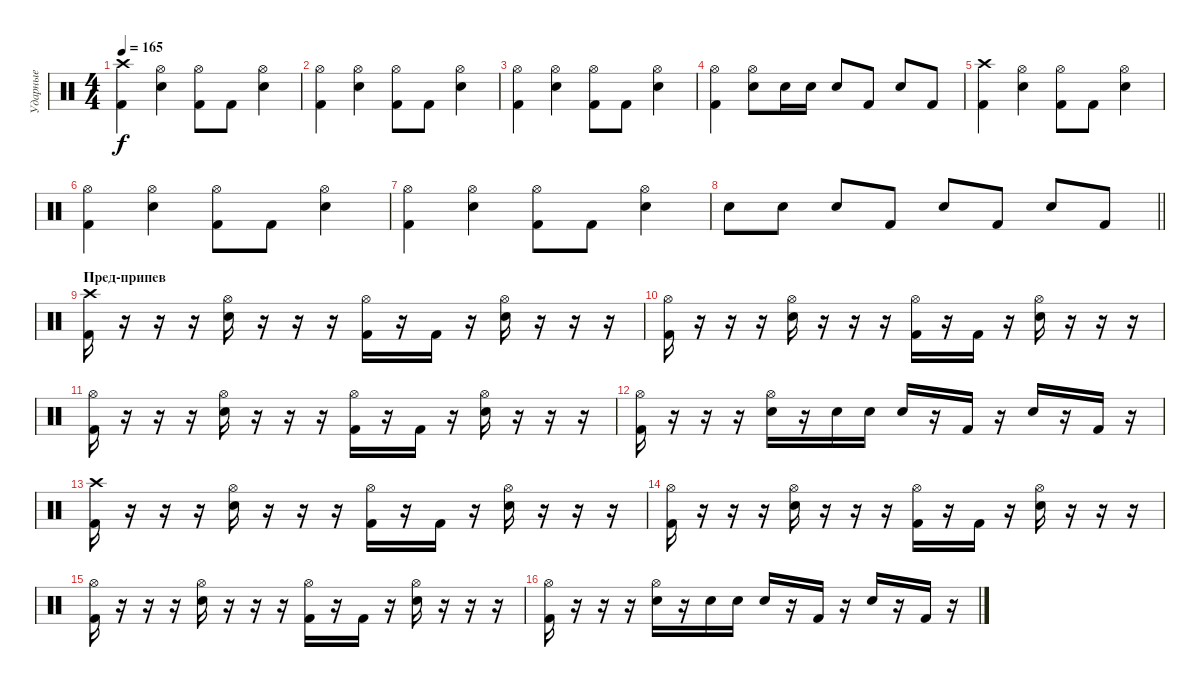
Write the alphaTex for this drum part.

\track ("Ударные" "Ударные") {instrument percussion}
\staff {score}
\articulation defaults
\ts (4 4)
\tempo 165
\clef neutral
\ks c
("Kick (hit) 2" "Crash high (hit)").4{dy f} ("Electric Snare (hit)" "Hi-Hat (open)").4 ("Kick (hit) 2" "Hi-Hat (open)").8 "Kick (hit) 2".8 ("Electric Snare (hit)" "Hi-Hat (open)").4 |
("Kick (hit) 2" "Hi-Hat (open)").4 ("Electric Snare (hit)" "Hi-Hat (open)").4 ("Kick (hit) 2" "Hi-Hat (open)").8 "Kick (hit) 2".8 ("Electric Snare (hit)" "Hi-Hat (open)").4 |
("Kick (hit) 2" "Hi-Hat (open)").4 ("Electric Snare (hit)" "Hi-Hat (open)").4 ("Kick (hit) 2" "Hi-Hat (open)").8 "Kick (hit) 2".8 ("Electric Snare (hit)" "Hi-Hat (open)").4 |
("Kick (hit) 2" "Hi-Hat (open)").4 ("Electric Snare (hit)" "Hi-Hat (open)").8 "Electric Snare (hit)".16 "Electric Snare (hit)".16 "Electric Snare (hit)".8 "Kick (hit) 2".8 "Electric Snare (hit)".8 "Kick (hit) 2".8 |
("Kick (hit) 2" "Crash high (hit)").4 ("Electric Snare (hit)" "Hi-Hat (open)").4 ("Kick (hit) 2" "Hi-Hat (open)").8 "Kick (hit) 2".8 ("Electric Snare (hit)" "Hi-Hat (open)").4 |
("Kick (hit) 2" "Hi-Hat (open)").4 ("Electric Snare (hit)" "Hi-Hat (open)").4 ("Kick (hit) 2" "Hi-Hat (open)").8 "Kick (hit) 2".8 ("Electric Snare (hit)" "Hi-Hat (open)").4 |
("Kick (hit) 2" "Hi-Hat (open)").4 ("Electric Snare (hit)" "Hi-Hat (open)").4 ("Kick (hit) 2" "Hi-Hat (open)").8 "Kick (hit) 2".8 ("Electric Snare (hit)" "Hi-Hat (open)").4 |
\barLineRight lightlight "Electric Snare (hit)".8 "Electric Snare (hit)".8 "Electric Snare (hit)".8 "Kick (hit) 2".8 "Electric Snare (hit)".8 "Kick (hit) 2".8 "Electric Snare (hit)".8 "Kick (hit) 2".8
|
\section ("" "Пред-припев")
("Kick (hit) 2" "Crash high (hit)").16 r.16 r.16 r.16 ("Electric Snare (hit)" "Hi-Hat (open)").16 r.16 r.16 r.16 ("Kick (hit) 2" "Hi-Hat (open)").16 r.16 "Kick (hit) 2".16 r.16 ("Electric Snare (hit)" "Hi-Hat (open)").16 r.16 r.16 r.16 |
("Kick (hit) 2" "Hi-Hat (open)").16 r.16 r.16 r.16 ("Electric Snare (hit)" "Hi-Hat (open)").16 r.16 r.16 r.16 ("Kick (hit) 2" "Hi-Hat (open)").16 r.16 "Kick (hit) 2".16 r.16 ("Electric Snare (hit)" "Hi-Hat (open)").16 r.16 r.16 r.16 |
("Kick (hit) 2" "Hi-Hat (open)").16 r.16 r.16 r.16 ("Electric Snare (hit)" "Hi-Hat (open)").16 r.16 r.16 r.16 ("Kick (hit) 2" "Hi-Hat (open)").16 r.16 "Kick (hit) 2".16 r.16 ("Electric Snare (hit)" "Hi-Hat (open)").16 r.16 r.16 r.16 |
("Kick (hit) 2" "Hi-Hat (open)").16 r.16 r.16 r.16 ("Electric Snare (hit)" "Hi-Hat (open)").16 r.16 "Electric Snare (hit)".16 "Electric Snare (hit)".16 "Electric Snare (hit)".16 r.16 "Kick (hit) 2".16 r.16 "Electric Snare (hit)".16 r.16 "Kick (hit) 2".16 r.16 |
("Kick (hit) 2" "Crash high (hit)").16 r.16 r.16 r.16 ("Electric Snare (hit)" "Hi-Hat (open)").16 r.16 r.16 r.16 ("Kick (hit) 2" "Hi-Hat (open)").16 r.16 "Kick (hit) 2".16 r.16 ("Electric Snare (hit)" "Hi-Hat (open)").16 r.16 r.16 r.16 |
("Kick (hit) 2" "Hi-Hat (open)").16 r.16 r.16 r.16 ("Electric Snare (hit)" "Hi-Hat (open)").16 r.16 r.16 r.16 ("Kick (hit) 2" "Hi-Hat (open)").16 r.16 "Kick (hit) 2".16 r.16 ("Electric Snare (hit)" "Hi-Hat (open)").16 r.16 r.16 r.16 |
("Kick (hit) 2" "Hi-Hat (open)").16 r.16 r.16 r.16 ("Electric Snare (hit)" "Hi-Hat (open)").16 r.16 r.16 r.16 ("Kick (hit) 2" "Hi-Hat (open)").16 r.16 "Kick (hit) 2".16 r.16 ("Electric Snare (hit)" "Hi-Hat (open)").16 r.16 r.16 r.16 |
("Kick (hit) 2" "Hi-Hat (open)").16 r.16 r.16 r.16 ("Electric Snare (hit)" "Hi-Hat (open)").16 r.16 "Electric Snare (hit)".16 "Electric Snare (hit)".16 "Electric Snare (hit)".16 r.16 "Kick (hit) 2".16 r.16 "Electric Snare (hit)".16 r.16 "Kick (hit) 2".16 r.16
